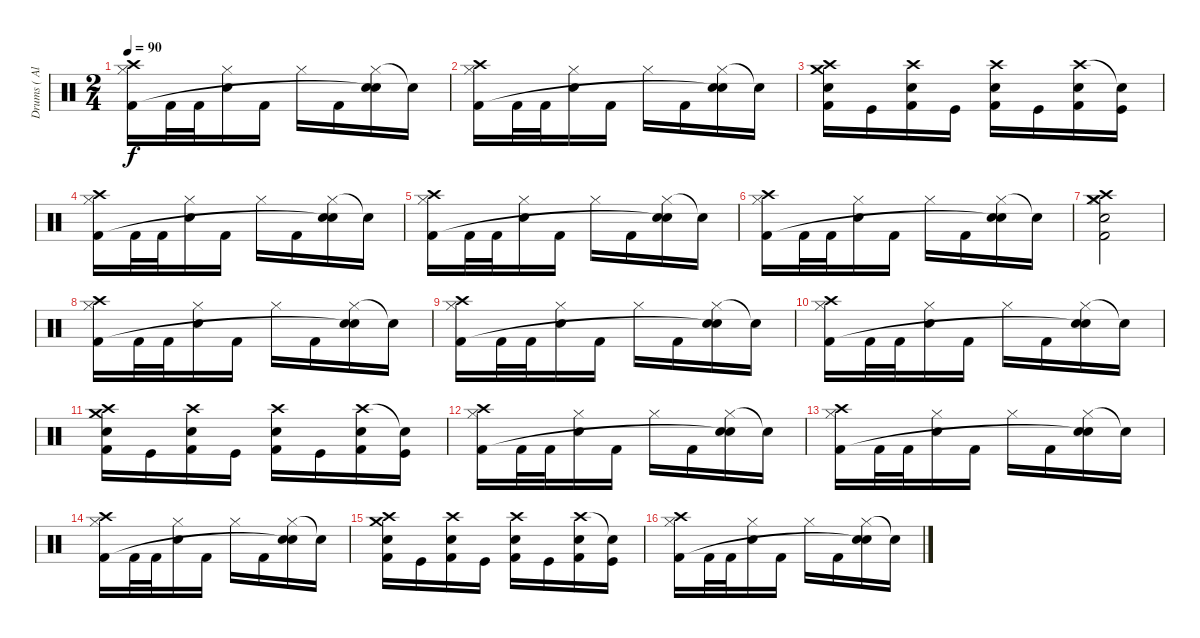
\track ("Drums ( Alex Holzwarth)" "Drums ( Al") {instrument percussion}
\staff {score}
\articulation defaults
\ts (2 4)
\tempo 90
\clef neutral
\ks c
("Crash high (hit)" "Hi-Hat (closed)" "Kick (hit) 2").16{dy f} "Kick (hit) 2".32 "Kick (hit) 2".32 ("Hi-Hat (closed)" "Electric Snare (hit)").16 "Kick (hit) 2".16 "Hi-Hat (closed)".16 "Kick (hit) 2".16 ("Hi-Hat (closed)" "Electric Snare (hit)" "Snare (hit)"{t}).16 "Snare (hit)"{t}.16 |
("Crash high (hit)" "Hi-Hat (closed)" "Kick (hit) 2").16 "Kick (hit) 2".32 "Kick (hit) 2".32 ("Hi-Hat (closed)" "Electric Snare (hit)").16 "Kick (hit) 2".16 "Hi-Hat (closed)".16 "Kick (hit) 2".16 ("Hi-Hat (closed)" "Electric Snare (hit)" "Snare (hit)"{t}).16 "Snare (hit)"{t}.16 |
("Crash high (hit)" "Crash medium (hit)" "Snare (hit) 2" "Kick (hit) 2").16 "Kick (hit)".16 ("Crash high (hit)" "Snare (hit) 2" "Kick (hit) 2").16 "Kick (hit)".16 ("Crash high (hit)" "Snare (hit) 2" "Kick (hit) 2").16 "Kick (hit)".16 ("Crash high (hit)" "Snare (hit) 2" "Kick (hit) 2").16 ("Snare (hit)"{t} "Kick (hit)").16 |
("Crash high (hit)" "Hi-Hat (closed)" "Kick (hit) 2").16 "Kick (hit) 2".32 "Kick (hit) 2".32 ("Hi-Hat (closed)" "Electric Snare (hit)").16 "Kick (hit) 2".16 "Hi-Hat (closed)".16 "Kick (hit) 2".16 ("Hi-Hat (closed)" "Electric Snare (hit)" "Snare (hit)"{t}).16 "Snare (hit)"{t}.16 |
("Crash high (hit)" "Hi-Hat (closed)" "Kick (hit) 2").16 "Kick (hit) 2".32 "Kick (hit) 2".32 ("Hi-Hat (closed)" "Electric Snare (hit)").16 "Kick (hit) 2".16 "Hi-Hat (closed)".16 "Kick (hit) 2".16 ("Hi-Hat (closed)" "Electric Snare (hit)" "Snare (hit)"{t}).16 "Snare (hit)"{t}.16 |
("Crash high (hit)" "Hi-Hat (closed)" "Kick (hit) 2").16 "Kick (hit) 2".32 "Kick (hit) 2".32 ("Hi-Hat (closed)" "Electric Snare (hit)").16 "Kick (hit) 2".16 "Hi-Hat (closed)".16 "Kick (hit) 2".16 ("Hi-Hat (closed)" "Electric Snare (hit)" "Snare (hit)"{t}).16 "Snare (hit)"{t}.16 |
("Crash high (hit)" "Crash medium (hit)" "Hi-Hat (closed)" "Electric Snare (hit)" "Kick (hit) 2").2 |
("Crash high (hit)" "Hi-Hat (closed)" "Kick (hit) 2").16 "Kick (hit) 2".32 "Kick (hit) 2".32 ("Hi-Hat (closed)" "Electric Snare (hit)").16 "Kick (hit) 2".16 "Hi-Hat (closed)".16 "Kick (hit) 2".16 ("Hi-Hat (closed)" "Electric Snare (hit)" "Snare (hit)"{t}).16 "Snare (hit)"{t}.16 |
("Crash high (hit)" "Hi-Hat (closed)" "Kick (hit) 2").16 "Kick (hit) 2".32 "Kick (hit) 2".32 ("Hi-Hat (closed)" "Electric Snare (hit)").16 "Kick (hit) 2".16 "Hi-Hat (closed)".16 "Kick (hit) 2".16 ("Hi-Hat (closed)" "Electric Snare (hit)" "Snare (hit)"{t}).16 "Snare (hit)"{t}.16 |
("Crash high (hit)" "Hi-Hat (closed)" "Kick (hit) 2").16 "Kick (hit) 2".32 "Kick (hit) 2".32 ("Hi-Hat (closed)" "Electric Snare (hit)").16 "Kick (hit) 2".16 "Hi-Hat (closed)".16 "Kick (hit) 2".16 ("Hi-Hat (closed)" "Electric Snare (hit)" "Snare (hit)"{t}).16 "Snare (hit)"{t}.16 |
("Crash high (hit)" "Crash medium (hit)" "Snare (hit) 2" "Kick (hit) 2").16 "Kick (hit)".16 ("Crash high (hit)" "Snare (hit) 2" "Kick (hit) 2").16 "Kick (hit)".16 ("Crash high (hit)" "Snare (hit) 2" "Kick (hit) 2").16 "Kick (hit)".16 ("Crash high (hit)" "Snare (hit) 2" "Kick (hit) 2").16 ("Snare (hit)"{t} "Kick (hit)").16 |
("Crash high (hit)" "Hi-Hat (closed)" "Kick (hit) 2").16 "Kick (hit) 2".32 "Kick (hit) 2".32 ("Hi-Hat (closed)" "Electric Snare (hit)").16 "Kick (hit) 2".16 "Hi-Hat (closed)".16 "Kick (hit) 2".16 ("Hi-Hat (closed)" "Electric Snare (hit)" "Snare (hit)"{t}).16 "Snare (hit)"{t}.16 |
("Crash high (hit)" "Hi-Hat (closed)" "Kick (hit) 2").16 "Kick (hit) 2".32 "Kick (hit) 2".32 ("Hi-Hat (closed)" "Electric Snare (hit)").16 "Kick (hit) 2".16 "Hi-Hat (closed)".16 "Kick (hit) 2".16 ("Hi-Hat (closed)" "Electric Snare (hit)" "Snare (hit)"{t}).16 "Snare (hit)"{t}.16 |
("Crash high (hit)" "Hi-Hat (closed)" "Kick (hit) 2").16 "Kick (hit) 2".32 "Kick (hit) 2".32 ("Hi-Hat (closed)" "Electric Snare (hit)").16 "Kick (hit) 2".16 "Hi-Hat (closed)".16 "Kick (hit) 2".16 ("Hi-Hat (closed)" "Electric Snare (hit)" "Snare (hit)"{t}).16 "Snare (hit)"{t}.16 |
("Crash high (hit)" "Crash medium (hit)" "Snare (hit) 2" "Kick (hit) 2").16 "Kick (hit)".16 ("Crash high (hit)" "Snare (hit) 2" "Kick (hit) 2").16 "Kick (hit)".16 ("Crash high (hit)" "Snare (hit) 2" "Kick (hit) 2").16 "Kick (hit)".16 ("Crash high (hit)" "Snare (hit) 2" "Kick (hit) 2").16 ("Snare (hit)"{t} "Kick (hit)").16 |
("Crash high (hit)" "Hi-Hat (closed)" "Kick (hit) 2").16 "Kick (hit) 2".32 "Kick (hit) 2".32 ("Hi-Hat (closed)" "Electric Snare (hit)").16 "Kick (hit) 2".16 "Hi-Hat (closed)".16 "Kick (hit) 2".16 ("Hi-Hat (closed)" "Electric Snare (hit)" "Snare (hit)"{t}).16 "Snare (hit)"{t}.16
